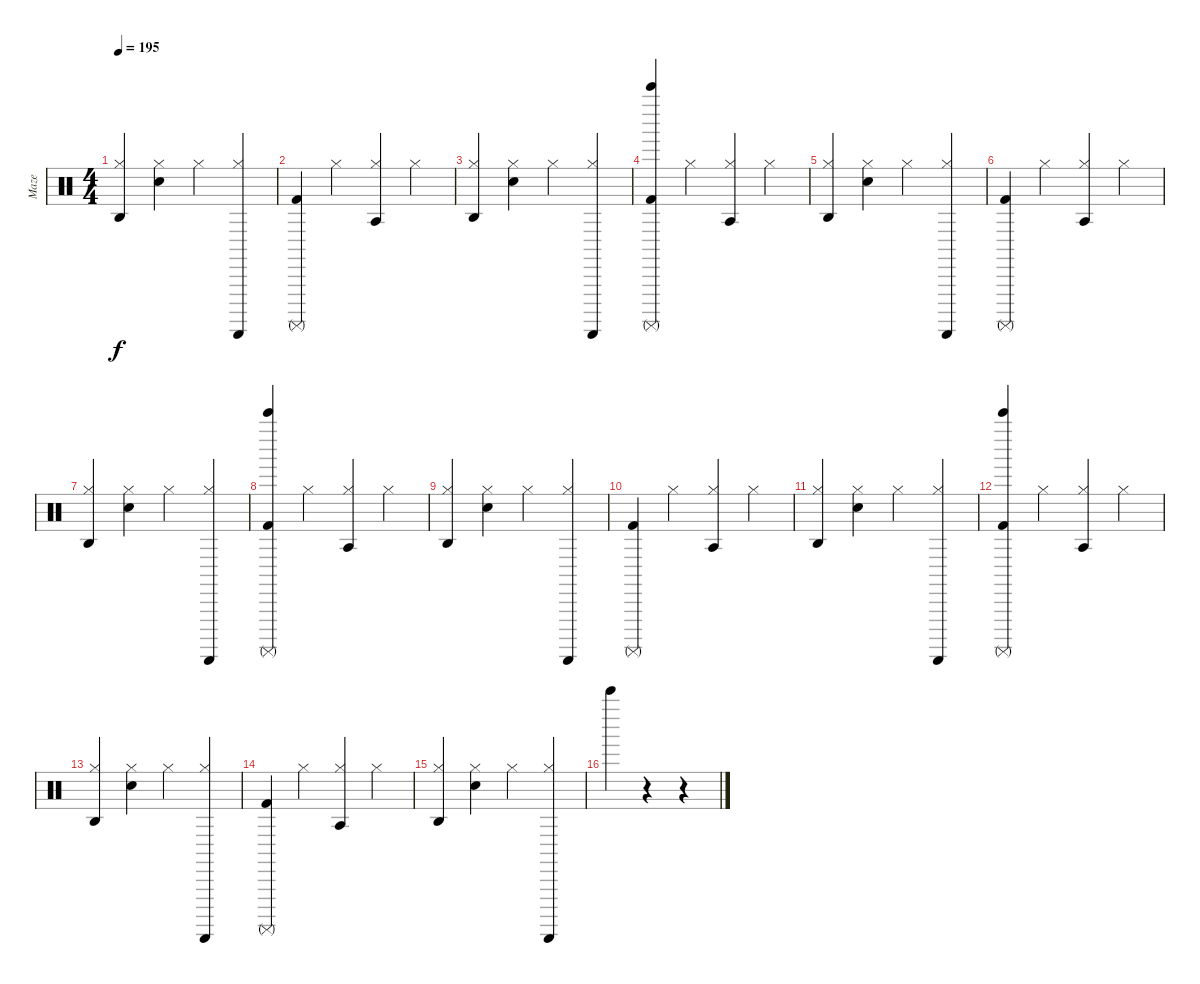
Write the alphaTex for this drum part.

\track ("Maze" "Maze") {instrument percussion}
\staff
\articulation defaults
\ts (4 4)
\tempo 195
\clef neutral
\ks c
("Agogo high (hit)" "Hi-Hat (closed)").4{dy f} ("Metronome (bell)" "Hi-Hat (closed)").4 "Hi-Hat (closed)".4 ("Guiro (scrap-return)" "Hi-Hat (closed)").4 |
("Surdo (mute)" "Kick (hit) 2").4 "Hi-Hat (closed)".4 ("Agogo tow (hit)" "Hi-Hat (closed)").4 "Hi-Hat (closed)".4 |
("Agogo high (hit)" "Hi-Hat (closed)").4 ("Metronome (bell)" "Hi-Hat (closed)").4 "Hi-Hat (closed)".4 ("Guiro (scrap-return)" "Hi-Hat (closed)").4 |
("Bell Tree (hit)" "Surdo (mute)" "Kick (hit) 2").4 "Hi-Hat (closed)".4 ("Agogo tow (hit)" "Hi-Hat (closed)").4 "Hi-Hat (closed)".4 |
("Agogo high (hit)" "Hi-Hat (closed)").4 ("Metronome (bell)" "Hi-Hat (closed)").4 "Hi-Hat (closed)".4 ("Guiro (scrap-return)" "Hi-Hat (closed)").4 |
("Surdo (mute)" "Kick (hit) 2").4 "Hi-Hat (closed)".4 ("Agogo tow (hit)" "Hi-Hat (closed)").4 "Hi-Hat (closed)".4 |
("Agogo high (hit)" "Hi-Hat (closed)").4 ("Metronome (bell)" "Hi-Hat (closed)").4 "Hi-Hat (closed)".4 ("Guiro (scrap-return)" "Hi-Hat (closed)").4 |
("Bell Tree (hit)" "Surdo (mute)" "Kick (hit) 2").4 "Hi-Hat (closed)".4 ("Agogo tow (hit)" "Hi-Hat (closed)").4 "Hi-Hat (closed)".4 |
("Agogo high (hit)" "Hi-Hat (closed)").4 ("Metronome (bell)" "Hi-Hat (closed)").4 "Hi-Hat (closed)".4 ("Guiro (scrap-return)" "Hi-Hat (closed)").4 |
("Surdo (mute)" "Kick (hit) 2").4 "Hi-Hat (closed)".4 ("Agogo tow (hit)" "Hi-Hat (closed)").4 "Hi-Hat (closed)".4 |
("Agogo high (hit)" "Hi-Hat (closed)").4 ("Metronome (bell)" "Hi-Hat (closed)").4 "Hi-Hat (closed)".4 ("Guiro (scrap-return)" "Hi-Hat (closed)").4 |
("Bell Tree (hit)" "Surdo (mute)" "Kick (hit) 2").4 "Hi-Hat (closed)".4 ("Agogo tow (hit)" "Hi-Hat (closed)").4 "Hi-Hat (closed)".4 |
("Agogo high (hit)" "Hi-Hat (closed)").4 ("Metronome (bell)" "Hi-Hat (closed)").4 "Hi-Hat (closed)".4 ("Guiro (scrap-return)" "Hi-Hat (closed)").4 |
("Surdo (mute)" "Kick (hit) 2").4 "Hi-Hat (closed)".4 ("Agogo tow (hit)" "Hi-Hat (closed)").4 "Hi-Hat (closed)".4 |
("Agogo high (hit)" "Hi-Hat (closed)").4 ("Metronome (bell)" "Hi-Hat (closed)").4 "Hi-Hat (closed)".4 ("Guiro (scrap-return)" "Hi-Hat (closed)").4 |
"Bell Tree (hit)".4 r.4 r.4
